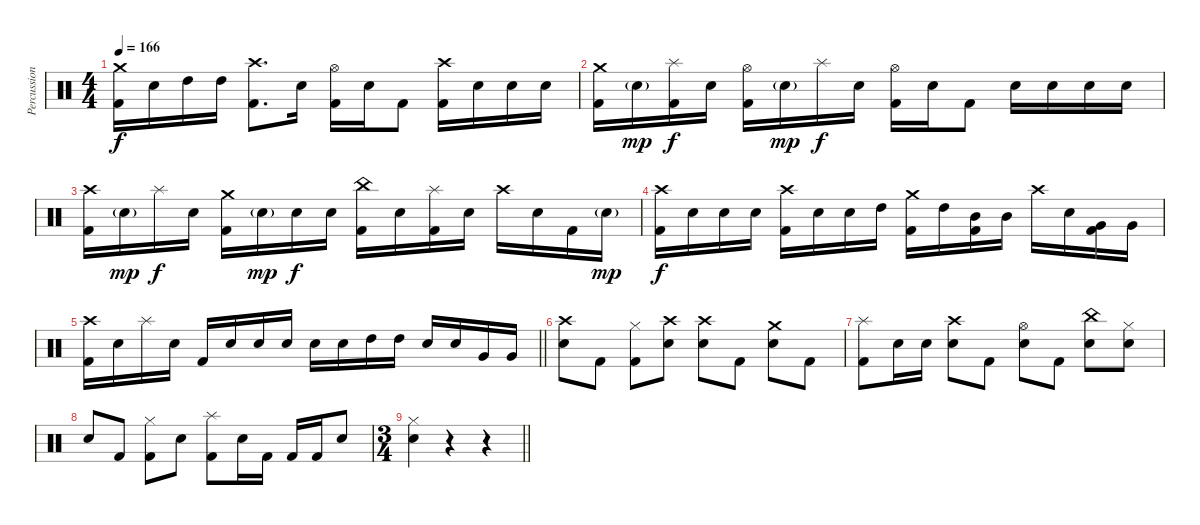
\track ("Percussion" "Percussion") {instrument percussion}
\staff {score}
\articulation defaults
\ts (4 4)
\tempo 166
\clef neutral
\ks c
("Crash medium (hit)" "Kick (hit) 2").16{dy f} "Electric Snare (hit)".16 "High Tom (hit)".16 "High Tom (hit)".16 ("Crash high (hit)" "Kick (hit) 2").8{d} "Electric Snare (hit)".16 ("Hi-Hat (open)" "Kick (hit) 2").16 "Electric Snare (hit)".16 "Kick (hit) 2".8 ("Crash high (hit)" "Kick (hit) 2").16 "Electric Snare (hit)".16 "Electric Snare (hit)".16 "Electric Snare (hit)".16 |
("Crash medium (hit)" "Kick (hit) 2").16 "Electric Snare (hit)"{g}.16{dy mp} ("Splash (hit)" "Kick (hit) 2").16{dy f} "Electric Snare (hit)".16 ("Hi-Hat (open)" "Kick (hit) 2").16 "Electric Snare (hit)"{g}.16{dy mp} "Splash (hit)".16{dy f} "Electric Snare (hit)".16 ("Hi-Hat (open)" "Kick (hit) 2").16 "Electric Snare (hit)".16 "Kick (hit) 2".8 "Electric Snare (hit)".16 "Electric Snare (hit)".16 "Electric Snare (hit)".16 "Electric Snare (hit)".16 |
("Crash high (hit)" "Kick (hit) 2").16 "Electric Snare (hit)"{g}.16{dy mp} "Splash (hit)".16{dy f} "Electric Snare (hit)".16 ("Crash medium (hit)" "Kick (hit) 2").16 "Electric Snare (hit)"{g}.16{dy mp} "Electric Snare (hit)".16{dy f} "Electric Snare (hit)".16 ("China (hit)" "Kick (hit) 2").16 "Electric Snare (hit)".16 ("Splash (hit)" "Kick (hit) 2").16 "Electric Snare (hit)".16 "Crash high (hit)".16 "Electric Snare (hit)".16 "Kick (hit) 2".16 "Electric Snare (hit)"{g}.16{dy mp} |
("Crash high (hit)" "Kick (hit) 2").16{dy f} "Electric Snare (hit)".16 "Electric Snare (hit)".16 "Electric Snare (hit)".16 ("Crash high (hit)" "Kick (hit) 2").16 "Electric Snare (hit)".16 "Electric Snare (hit)".16 "High Tom (hit)".16 ("Crash medium (hit)" "Kick (hit) 2").16 "High Tom (hit)".16 ("Mid Tom (hit)" "Kick (hit) 2").16 "Mid Tom (hit)".16 "Crash high (hit)".16 "Electric Snare (hit)".16 ("Very Low Tom (hit)" "Kick (hit) 2").16 "Very Low Tom (hit)".16 |
\barLineRight lightlight
("Crash high (hit)" "Kick (hit) 2").16 "Electric Snare (hit)".16 "Splash (hit)".16 "Electric Snare (hit)".16 "Kick (hit) 2".16 "Electric Snare (hit)".16 "Electric Snare (hit)".16 "Electric Snare (hit)".16 "Electric Snare (hit)".16 "Electric Snare (hit)".16 "High Tom (hit)".16 "High Tom (hit)".16 "Electric Snare (hit)".16 "Electric Snare (hit)".16 "Very Low Tom (hit)".16 "Very Low Tom (hit)".16 |
("Crash high (hit)" "Electric Snare (hit)").8 "Kick (hit) 2".8 ("Hi-Hat (closed)" "Kick (hit) 2").8 ("Crash high (hit)" "Electric Snare (hit)").8 ("Crash high (hit)" "Electric Snare (hit)").8 "Kick (hit) 2".8 ("Crash medium (hit)" "Electric Snare (hit)").8 "Kick (hit) 2".8 |
("Splash (hit)" "Kick (hit) 2").8 "Electric Snare (hit)".16 "Electric Snare (hit)".16 ("Crash high (hit)" "Electric Snare (hit)").8 "Kick (hit) 2".8 ("Hi-Hat (open)" "Electric Snare (hit)").8 "Kick (hit) 2".8 ("China (hit)" "Electric Snare (hit)").8 ("Hi-Hat (closed)" "Electric Snare (hit)").8 |
"Electric Snare (hit)".8 "Kick (hit) 2".8 ("Hi-Hat (closed)" "Kick (hit) 2").8 "Electric Snare (hit)".8 ("Splash (hit)" "Kick (hit) 2").8 "Electric Snare (hit)".16 "Kick (hit) 2".16 "Kick (hit) 2".16 "Kick (hit) 2".16 "Electric Snare (hit)".8 |
\ts (3 4)
\barLineRight lightlight
("Hi-Hat (closed)" "Electric Snare (hit)").4 r.4 r.4
